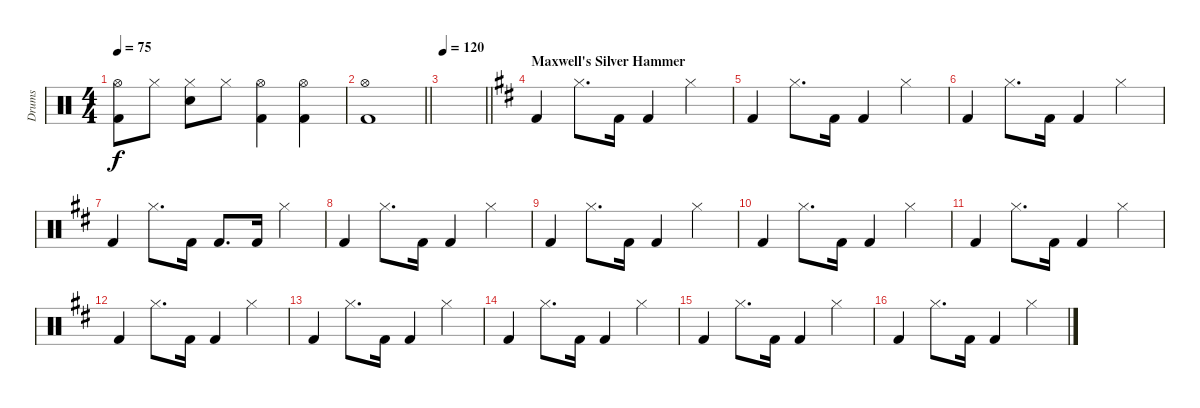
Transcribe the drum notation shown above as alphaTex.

\track ("Drums" "Drums") {instrument percussion}
\staff {score}
\articulation defaults
\ts (4 4)
\tempo 75
\clef neutral
\ks c
("Hi-Hat (open)" "Kick (hit) 2").8{dy f} "Hi-Hat (closed)".8 ("Hi-Hat (closed)" "Snare (hit) 2").8 "Hi-Hat (closed)".8 ("Hi-Hat (open)" "Kick (hit) 2").4 ("Hi-Hat (open)" "Kick (hit) 2").4 |
\barLineRight lightlight
("Hi-Hat (open)" "Kick (hit) 2").1 |
\tempo 120
\barLineRight lightlight
|
\section ("" "Maxwell's Silver Hammer")
\ks d "Kick (hit) 2".4 "Hi-Hat (closed)".8{d} "Kick (hit) 2".16 "Kick (hit) 2".4 "Hi-Hat (closed)".4
|
"Kick (hit) 2".4 "Hi-Hat (closed)".8{d} "Kick (hit) 2".16 "Kick (hit) 2".4 "Hi-Hat (closed)".4 |
"Kick (hit) 2".4 "Hi-Hat (closed)".8{d} "Kick (hit) 2".16 "Kick (hit) 2".4 "Hi-Hat (closed)".4 |
"Kick (hit) 2".4 "Hi-Hat (closed)".8{d} "Kick (hit) 2".16 "Kick (hit) 2".8{d} "Kick (hit) 2".16 "Hi-Hat (closed)".4 |
"Kick (hit) 2".4 "Hi-Hat (closed)".8{d} "Kick (hit) 2".16 "Kick (hit) 2".4 "Hi-Hat (closed)".4 |
"Kick (hit) 2".4 "Hi-Hat (closed)".8{d} "Kick (hit) 2".16 "Kick (hit) 2".4 "Hi-Hat (closed)".4 |
"Kick (hit) 2".4 "Hi-Hat (closed)".8{d} "Kick (hit) 2".16 "Kick (hit) 2".4 "Hi-Hat (closed)".4 |
"Kick (hit) 2".4 "Hi-Hat (closed)".8{d} "Kick (hit) 2".16 "Kick (hit) 2".4 "Hi-Hat (closed)".4 |
"Kick (hit) 2".4 "Hi-Hat (closed)".8{d} "Kick (hit) 2".16 "Kick (hit) 2".4 "Hi-Hat (closed)".4 |
"Kick (hit) 2".4 "Hi-Hat (closed)".8{d} "Kick (hit) 2".16 "Kick (hit) 2".4 "Hi-Hat (closed)".4 |
"Kick (hit) 2".4 "Hi-Hat (closed)".8{d} "Kick (hit) 2".16 "Kick (hit) 2".4 "Hi-Hat (closed)".4 |
"Kick (hit) 2".4 "Hi-Hat (closed)".8{d} "Kick (hit) 2".16 "Kick (hit) 2".4 "Hi-Hat (closed)".4 |
"Kick (hit) 2".4 "Hi-Hat (closed)".8{d} "Kick (hit) 2".16 "Kick (hit) 2".4 "Hi-Hat (closed)".4
